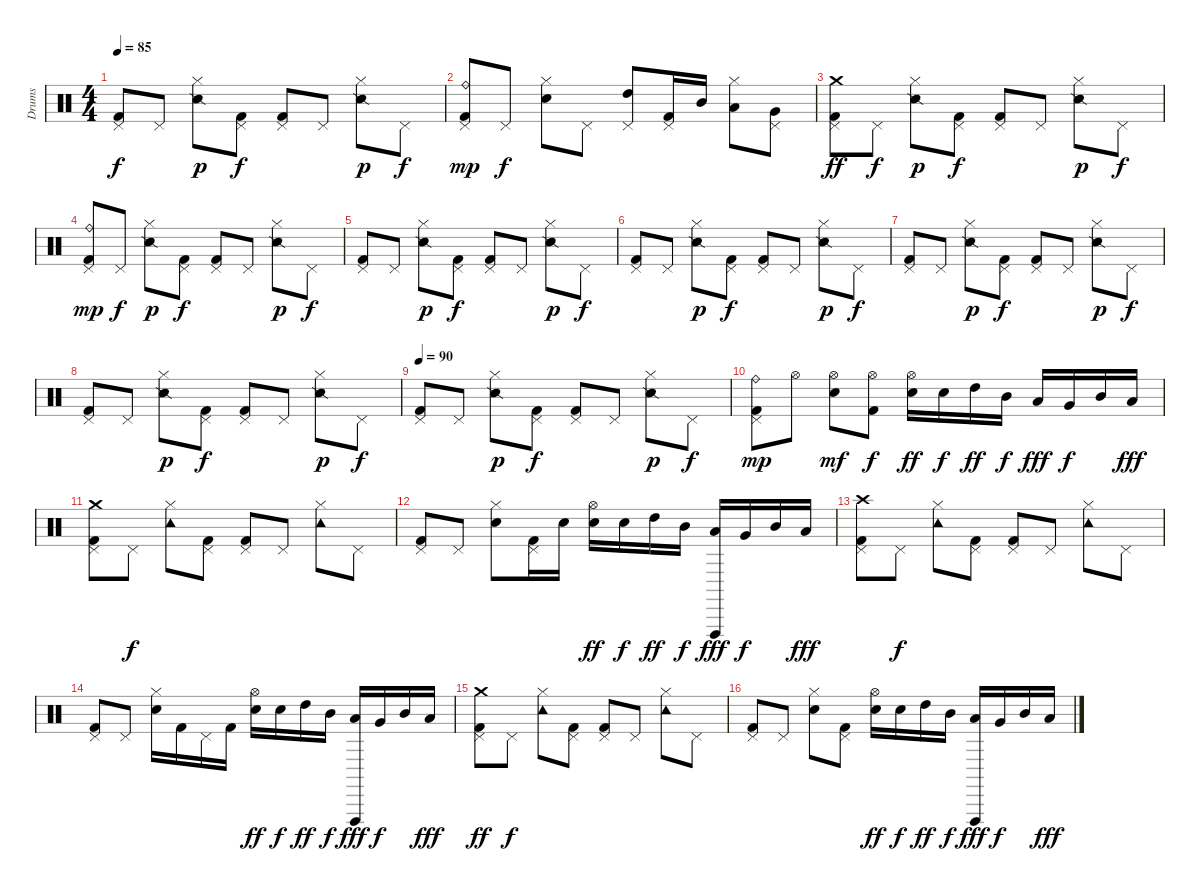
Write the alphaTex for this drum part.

\track ("Drums" "Drums") {instrument percussion}
\staff {score}
\articulation defaults
\ts (4 4)
\tempo 85
\clef neutral
\ks c
("Pedal Hi-Hat (hit)" "Kick (hit) 2").8{dy f} "Pedal Hi-Hat (hit)".8 ("Hi-Hat (closed)" "Snare (side stick) 2").8{dy p} ("Pedal Hi-Hat (hit)" "Kick (hit) 2").8{dy f} ("Pedal Hi-Hat (hit)" "Kick (hit) 2").8 "Pedal Hi-Hat (hit)".8 ("Hi-Hat (closed)" "Snare (side stick) 2").8{dy p} "Pedal Hi-Hat (hit)".8{dy f} |
("Ride (bell)" "Pedal Hi-Hat (hit)" "Kick (hit) 2").8{dy mp} "Pedal Hi-Hat (hit)".8{dy f} ("Hi-Hat (closed)" "Electric Snare (hit)").8 "Pedal Hi-Hat (hit)".8 ("Pedal Hi-Hat (hit)" "High Tom (hit)").8 ("Pedal Hi-Hat (hit)" "Kick (hit) 2").16 "Mid Tom (hit)".16 ("Hi-Hat (closed)" "Low Tom (hit)").8 ("Pedal Hi-Hat (hit)" "Very Low Tom (hit)").8 |
("Crash medium (hit)" "Pedal Hi-Hat (hit)" "Kick (hit) 2").8{dy ff} "Pedal Hi-Hat (hit)".8{dy f} ("Hi-Hat (closed)" "Snare (side stick) 2").8{dy p} ("Pedal Hi-Hat (hit)" "Kick (hit) 2").8{dy f} ("Pedal Hi-Hat (hit)" "Kick (hit) 2").8 "Pedal Hi-Hat (hit)".8 ("Hi-Hat (closed)" "Snare (side stick) 2").8{dy p} "Pedal Hi-Hat (hit)".8{dy f} |
("Ride (bell)" "Pedal Hi-Hat (hit)" "Kick (hit) 2").8{dy mp} "Pedal Hi-Hat (hit)".8{dy f} ("Hi-Hat (closed)" "Snare (side stick) 2").8{dy p} ("Pedal Hi-Hat (hit)" "Kick (hit) 2").8{dy f} ("Pedal Hi-Hat (hit)" "Kick (hit) 2").8 "Pedal Hi-Hat (hit)".8 ("Hi-Hat (closed)" "Snare (side stick) 2").8{dy p} "Pedal Hi-Hat (hit)".8{dy f} |
("Pedal Hi-Hat (hit)" "Kick (hit) 2").8 "Pedal Hi-Hat (hit)".8 ("Hi-Hat (closed)" "Snare (side stick) 2").8{dy p} ("Pedal Hi-Hat (hit)" "Kick (hit) 2").8{dy f} ("Pedal Hi-Hat (hit)" "Kick (hit) 2").8 "Pedal Hi-Hat (hit)".8 ("Hi-Hat (closed)" "Snare (side stick) 2").8{dy p} "Pedal Hi-Hat (hit)".8{dy f} |
("Pedal Hi-Hat (hit)" "Kick (hit) 2").8 "Pedal Hi-Hat (hit)".8 ("Hi-Hat (closed)" "Snare (side stick) 2").8{dy p} ("Pedal Hi-Hat (hit)" "Kick (hit) 2").8{dy f} ("Pedal Hi-Hat (hit)" "Kick (hit) 2").8 "Pedal Hi-Hat (hit)".8 ("Hi-Hat (closed)" "Snare (side stick) 2").8{dy p} "Pedal Hi-Hat (hit)".8{dy f} |
("Pedal Hi-Hat (hit)" "Kick (hit) 2").8 "Pedal Hi-Hat (hit)".8 ("Hi-Hat (closed)" "Snare (side stick) 2").8{dy p} ("Pedal Hi-Hat (hit)" "Kick (hit) 2").8{dy f} ("Pedal Hi-Hat (hit)" "Kick (hit) 2").8 "Pedal Hi-Hat (hit)".8 ("Hi-Hat (closed)" "Snare (side stick) 2").8{dy p} "Pedal Hi-Hat (hit)".8{dy f} |
("Pedal Hi-Hat (hit)" "Kick (hit) 2").8 "Pedal Hi-Hat (hit)".8 ("Hi-Hat (closed)" "Snare (side stick) 2").8{dy p} ("Pedal Hi-Hat (hit)" "Kick (hit) 2").8{dy f} ("Pedal Hi-Hat (hit)" "Kick (hit) 2").8 "Pedal Hi-Hat (hit)".8 ("Hi-Hat (closed)" "Snare (side stick) 2").8{dy p} "Pedal Hi-Hat (hit)".8{dy f} |
\tempo 90
("Pedal Hi-Hat (hit)" "Kick (hit) 2").8 "Pedal Hi-Hat (hit)".8 ("Hi-Hat (closed)" "Snare (side stick) 2").8{dy p} ("Pedal Hi-Hat (hit)" "Kick (hit) 2").8{dy f} ("Pedal Hi-Hat (hit)" "Kick (hit) 2").8 "Pedal Hi-Hat (hit)".8 ("Hi-Hat (closed)" "Snare (side stick) 2").8{dy p} "Pedal Hi-Hat (hit)".8{dy f} |
("Ride (bell)" "Pedal Hi-Hat (hit)" "Kick (hit) 2").8{dy mp} "Hi-Hat (open)".8 ("Hi-Hat (open)" "Electric Snare (hit)").8{dy mf} ("Hi-Hat (open)" "Kick (hit) 2").8{dy f} ("Hi-Hat (open)" "Electric Snare (hit)").16{dy ff} "Electric Snare (hit)".16{dy f} "High Tom (hit)".16{dy ff} "Mid Tom (hit)".16{dy f} "Low Tom (hit)".16{dy fff} "Very Low Tom (hit)".16{dy f} "Mid Tom (hit)".16 "Low Tom (hit)".16{dy fff} |
("Crash medium (hit)" "Pedal Hi-Hat (hit)" "Kick (hit) 2").8 "Pedal Hi-Hat (hit)".8{dy f} ("Hi-Hat (closed)" "Tambourine (hit)").8 ("Pedal Hi-Hat (hit)" "Kick (hit) 2").8 ("Pedal Hi-Hat (hit)" "Kick (hit) 2").8 "Pedal Hi-Hat (hit)".8 ("Hi-Hat (closed)" "Tambourine (hit)").8 "Pedal Hi-Hat (hit)".8 |
("Pedal Hi-Hat (hit)" "Kick (hit) 2").8 "Pedal Hi-Hat (hit)".8 ("Hi-Hat (closed)" "Electric Snare (hit)").8 ("Pedal Hi-Hat (hit)" "Kick (hit) 2").16 "Electric Snare (hit)".16 ("Hi-Hat (open)" "Electric Snare (hit)").16{dy ff} "Electric Snare (hit)".16{dy f} "High Tom (hit)".16{dy ff} "Mid Tom (hit)".16{dy f} ("Vibraslap (hit)" "Low Tom (hit)").16{dy fff} "Very Low Tom (hit)".16{dy f} "Mid Tom (hit)".16 "Low Tom (hit)".16{dy fff} |
("Crash high (hit)" "Pedal Hi-Hat (hit)" "Kick (hit) 2").8 "Pedal Hi-Hat (hit)".8{dy f} ("Hi-Hat (closed)" "Tambourine (hit)").8 ("Pedal Hi-Hat (hit)" "Kick (hit) 2").8 ("Pedal Hi-Hat (hit)" "Kick (hit) 2").8 "Pedal Hi-Hat (hit)".8 ("Hi-Hat (closed)" "Tambourine (hit)").8 "Pedal Hi-Hat (hit)".8 |
("Pedal Hi-Hat (hit)" "Kick (hit) 2").8 "Pedal Hi-Hat (hit)".8 ("Hi-Hat (closed)" "Electric Snare (hit)").16 "Kick (hit) 2".16 "Pedal Hi-Hat (hit)".16 "Kick (hit) 2".16 ("Hi-Hat (open)" "Electric Snare (hit)").16{dy ff} "Electric Snare (hit)".16{dy f} "High Tom (hit)".16{dy ff} "Mid Tom (hit)".16{dy f} ("Vibraslap (hit)" "Low Tom (hit)").16{dy fff} "Very Low Tom (hit)".16{dy f} "Mid Tom (hit)".16 "Low Tom (hit)".16{dy fff} |
("Crash medium (hit)" "Pedal Hi-Hat (hit)" "Kick (hit) 2").8{dy ff} "Pedal Hi-Hat (hit)".8{dy f} ("Hi-Hat (closed)" "Tambourine (hit)").8 ("Pedal Hi-Hat (hit)" "Kick (hit) 2").8 ("Pedal Hi-Hat (hit)" "Kick (hit) 2").8 "Pedal Hi-Hat (hit)".8 ("Hi-Hat (closed)" "Tambourine (hit)").8 "Pedal Hi-Hat (hit)".8 |
("Pedal Hi-Hat (hit)" "Kick (hit) 2").8 "Pedal Hi-Hat (hit)".8 ("Hi-Hat (closed)" "Electric Snare (hit)").8 ("Pedal Hi-Hat (hit)" "Kick (hit) 2").8 ("Hi-Hat (open)" "Electric Snare (hit)").16{dy ff} "Electric Snare (hit)".16{dy f} "High Tom (hit)".16{dy ff} "Mid Tom (hit)".16{dy f} ("Vibraslap (hit)" "Low Tom (hit)").16{dy fff} "Very Low Tom (hit)".16{dy f} "Mid Tom (hit)".16 "Low Tom (hit)".16{dy fff}
